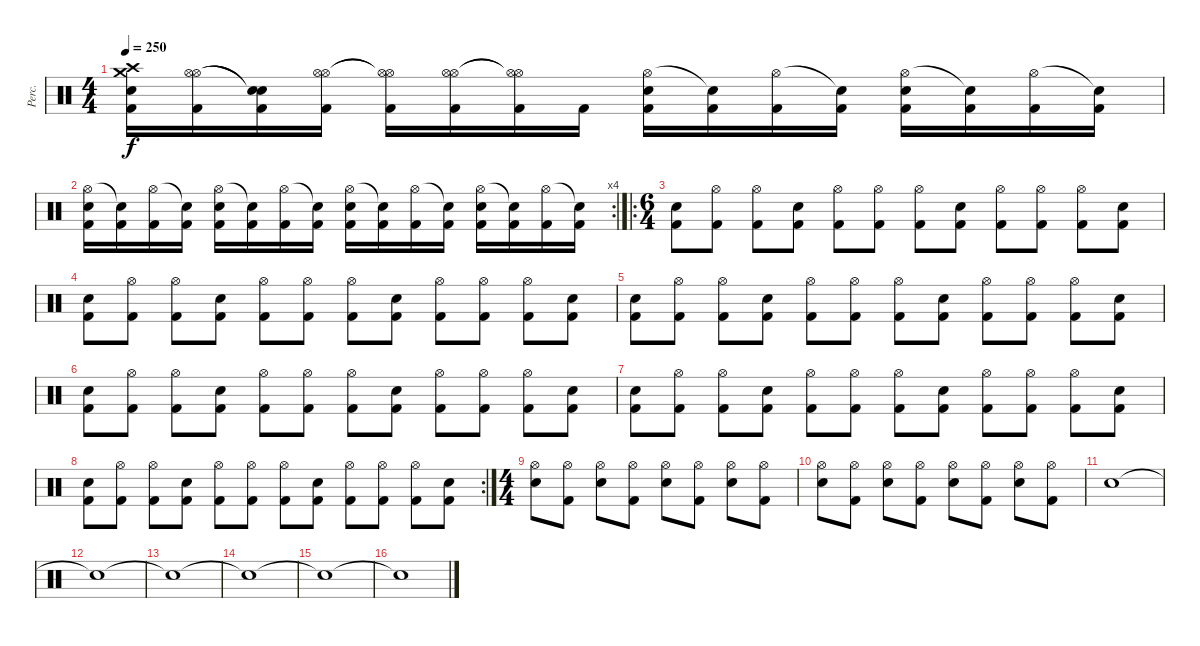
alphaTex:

\track ("Perc." "Perc.") {instrument percussion}
\staff {score}
\articulation defaults
\ts (4 4)
\tempo 250
\clef neutral
\ks c
("Crash high (hit)" "Crash medium (hit)" "Snare (hit) 2" "Kick (hit) 2").16{dy f} ("Hi-Hat (open)" "Hi-Hat (open)" "Kick (hit) 2").16 ("Snare (hit)"{t} "Snare (hit)"{t} "Kick (hit) 2").16 ("Hi-Hat (open)" "Hi-Hat (open)" "Kick (hit) 2").16 ("Hi-Hat (open)"{t} "Hi-Hat (open)"{t} "Kick (hit) 2").16 ("Hi-Hat (open)" "Hi-Hat (open)" "Kick (hit) 2").16 ("Hi-Hat (open)"{t} "Hi-Hat (open)"{t} "Kick (hit) 2").16 "Kick (hit) 2".16 ("Hi-Hat (open)" "Snare (hit) 2" "Kick (hit) 2").16 ("Snare (hit)"{t} "Kick (hit) 2").16 ("Hi-Hat (open)" "Kick (hit) 2").16 ("Snare (hit)"{t} "Kick (hit) 2").16 ("Hi-Hat (open)" "Snare (hit) 2" "Kick (hit) 2").16 ("Snare (hit)"{t} "Kick (hit) 2").16 ("Hi-Hat (open)" "Kick (hit) 2").16 ("Snare (hit)"{t} "Kick (hit) 2").16 |
\rc 4
("Hi-Hat (open)" "Snare (hit) 2" "Kick (hit) 2").16 ("Snare (hit)"{t} "Kick (hit) 2").16 ("Hi-Hat (open)" "Kick (hit) 2").16 ("Snare (hit)"{t} "Kick (hit) 2").16 ("Hi-Hat (open)" "Snare (hit) 2" "Kick (hit) 2").16 ("Snare (hit)"{t} "Kick (hit) 2").16 ("Hi-Hat (open)" "Kick (hit) 2").16 ("Snare (hit)"{t} "Kick (hit) 2").16 ("Hi-Hat (open)" "Snare (hit) 2" "Kick (hit) 2").16 ("Snare (hit)"{t} "Kick (hit) 2").16 ("Hi-Hat (open)" "Kick (hit) 2").16 ("Snare (hit)"{t} "Kick (hit) 2").16 ("Hi-Hat (open)" "Snare (hit) 2" "Kick (hit) 2").16 ("Snare (hit)"{t} "Kick (hit) 2").16 ("Hi-Hat (open)" "Kick (hit) 2").16 ("Snare (hit)"{t} "Kick (hit) 2").16 |
\ro
\ts (6 4)
("Snare (hit) 2" "Kick (hit) 2").8 ("Hi-Hat (open)" "Kick (hit) 2").8 ("Hi-Hat (open)" "Kick (hit) 2").8 ("Snare (hit) 2" "Kick (hit) 2").8 ("Hi-Hat (open)" "Kick (hit) 2").8 ("Hi-Hat (open)" "Kick (hit) 2").8 ("Hi-Hat (open)" "Kick (hit) 2").8 ("Snare (hit) 2" "Kick (hit) 2").8 ("Hi-Hat (open)" "Kick (hit) 2").8 ("Hi-Hat (open)" "Kick (hit) 2").8 ("Hi-Hat (open)" "Kick (hit) 2").8 ("Snare (hit) 2" "Kick (hit) 2").8 |
("Snare (hit) 2" "Kick (hit) 2").8 ("Hi-Hat (open)" "Kick (hit) 2").8 ("Hi-Hat (open)" "Kick (hit) 2").8 ("Snare (hit) 2" "Kick (hit) 2").8 ("Hi-Hat (open)" "Kick (hit) 2").8 ("Hi-Hat (open)" "Kick (hit) 2").8 ("Hi-Hat (open)" "Kick (hit) 2").8 ("Snare (hit) 2" "Kick (hit) 2").8 ("Hi-Hat (open)" "Kick (hit) 2").8 ("Hi-Hat (open)" "Kick (hit) 2").8 ("Hi-Hat (open)" "Kick (hit) 2").8 ("Snare (hit) 2" "Kick (hit) 2").8 |
("Snare (hit) 2" "Kick (hit) 2").8 ("Hi-Hat (open)" "Kick (hit) 2").8 ("Hi-Hat (open)" "Kick (hit) 2").8 ("Snare (hit) 2" "Kick (hit) 2").8 ("Hi-Hat (open)" "Kick (hit) 2").8 ("Hi-Hat (open)" "Kick (hit) 2").8 ("Hi-Hat (open)" "Kick (hit) 2").8 ("Snare (hit) 2" "Kick (hit) 2").8 ("Hi-Hat (open)" "Kick (hit) 2").8 ("Hi-Hat (open)" "Kick (hit) 2").8 ("Hi-Hat (open)" "Kick (hit) 2").8 ("Snare (hit) 2" "Kick (hit) 2").8 |
("Snare (hit) 2" "Kick (hit) 2").8 ("Hi-Hat (open)" "Kick (hit) 2").8 ("Hi-Hat (open)" "Kick (hit) 2").8 ("Snare (hit) 2" "Kick (hit) 2").8 ("Hi-Hat (open)" "Kick (hit) 2").8 ("Hi-Hat (open)" "Kick (hit) 2").8 ("Hi-Hat (open)" "Kick (hit) 2").8 ("Snare (hit) 2" "Kick (hit) 2").8 ("Hi-Hat (open)" "Kick (hit) 2").8 ("Hi-Hat (open)" "Kick (hit) 2").8 ("Hi-Hat (open)" "Kick (hit) 2").8 ("Snare (hit) 2" "Kick (hit) 2").8 |
("Snare (hit) 2" "Kick (hit) 2").8 ("Hi-Hat (open)" "Kick (hit) 2").8 ("Hi-Hat (open)" "Kick (hit) 2").8 ("Snare (hit) 2" "Kick (hit) 2").8 ("Hi-Hat (open)" "Kick (hit) 2").8 ("Hi-Hat (open)" "Kick (hit) 2").8 ("Hi-Hat (open)" "Kick (hit) 2").8 ("Snare (hit) 2" "Kick (hit) 2").8 ("Hi-Hat (open)" "Kick (hit) 2").8 ("Hi-Hat (open)" "Kick (hit) 2").8 ("Hi-Hat (open)" "Kick (hit) 2").8 ("Snare (hit) 2" "Kick (hit) 2").8 |
\rc 2
("Snare (hit) 2" "Kick (hit) 2").8 ("Hi-Hat (open)" "Kick (hit) 2").8 ("Hi-Hat (open)" "Kick (hit) 2").8 ("Snare (hit) 2" "Kick (hit) 2").8 ("Hi-Hat (open)" "Kick (hit) 2").8 ("Hi-Hat (open)" "Kick (hit) 2").8 ("Hi-Hat (open)" "Kick (hit) 2").8 ("Snare (hit) 2" "Kick (hit) 2").8 ("Hi-Hat (open)" "Kick (hit) 2").8 ("Hi-Hat (open)" "Kick (hit) 2").8 ("Hi-Hat (open)" "Kick (hit) 2").8 ("Snare (hit) 2" "Kick (hit) 2").8 |
\ts (4 4)
("Hi-Hat (open)" "Snare (hit) 2").8 ("Hi-Hat (open)" "Kick (hit) 2").8 ("Hi-Hat (open)" "Snare (hit) 2").8 ("Hi-Hat (open)" "Kick (hit) 2").8 ("Hi-Hat (open)" "Snare (hit) 2").8 ("Hi-Hat (open)" "Kick (hit) 2").8 ("Hi-Hat (open)" "Snare (hit) 2").8 ("Hi-Hat (open)" "Kick (hit) 2").8 |
("Hi-Hat (open)" "Snare (hit) 2").8 ("Hi-Hat (open)" "Kick (hit) 2").8 ("Hi-Hat (open)" "Snare (hit) 2").8 ("Hi-Hat (open)" "Kick (hit) 2").8 ("Hi-Hat (open)" "Snare (hit) 2").8 ("Hi-Hat (open)" "Kick (hit) 2").8 ("Hi-Hat (open)" "Snare (hit) 2").8 ("Hi-Hat (open)" "Kick (hit) 2").8 |
"Snare (hit) 2".1 |
"Snare (hit)"{t}.1 |
"Snare (hit)"{t}.1 |
"Snare (hit)"{t}.1 |
"Snare (hit)"{t}.1 |
"Snare (hit)"{t}.1
